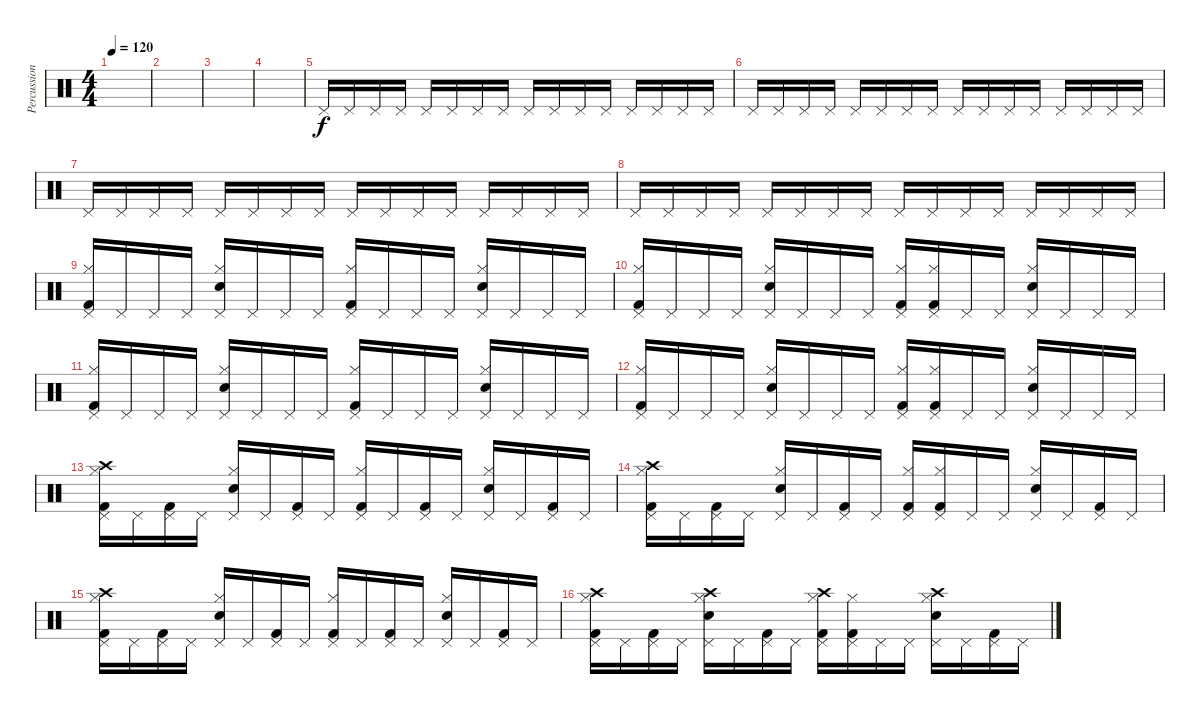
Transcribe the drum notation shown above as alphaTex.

\track ("Percussions" "Percussion") {instrument percussion}
\staff {score}
\articulation defaults
\ts (4 4)
\tempo 120
\clef neutral
\ks c
|
|
|
|
"Pedal Hi-Hat (hit)".16 "Pedal Hi-Hat (hit)".16 "Pedal Hi-Hat (hit)".16 "Pedal Hi-Hat (hit)".16 "Pedal Hi-Hat (hit)".16 "Pedal Hi-Hat (hit)".16 "Pedal Hi-Hat (hit)".16 "Pedal Hi-Hat (hit)".16 "Pedal Hi-Hat (hit)".16 "Pedal Hi-Hat (hit)".16 "Pedal Hi-Hat (hit)".16 "Pedal Hi-Hat (hit)".16 "Pedal Hi-Hat (hit)".16 "Pedal Hi-Hat (hit)".16 "Pedal Hi-Hat (hit)".16 "Pedal Hi-Hat (hit)".16 |
"Pedal Hi-Hat (hit)".16 "Pedal Hi-Hat (hit)".16 "Pedal Hi-Hat (hit)".16 "Pedal Hi-Hat (hit)".16 "Pedal Hi-Hat (hit)".16 "Pedal Hi-Hat (hit)".16 "Pedal Hi-Hat (hit)".16 "Pedal Hi-Hat (hit)".16 "Pedal Hi-Hat (hit)".16 "Pedal Hi-Hat (hit)".16 "Pedal Hi-Hat (hit)".16 "Pedal Hi-Hat (hit)".16 "Pedal Hi-Hat (hit)".16 "Pedal Hi-Hat (hit)".16 "Pedal Hi-Hat (hit)".16 "Pedal Hi-Hat (hit)".16 |
"Pedal Hi-Hat (hit)".16 "Pedal Hi-Hat (hit)".16 "Pedal Hi-Hat (hit)".16 "Pedal Hi-Hat (hit)".16 "Pedal Hi-Hat (hit)".16 "Pedal Hi-Hat (hit)".16 "Pedal Hi-Hat (hit)".16 "Pedal Hi-Hat (hit)".16 "Pedal Hi-Hat (hit)".16 "Pedal Hi-Hat (hit)".16 "Pedal Hi-Hat (hit)".16 "Pedal Hi-Hat (hit)".16 "Pedal Hi-Hat (hit)".16 "Pedal Hi-Hat (hit)".16 "Pedal Hi-Hat (hit)".16 "Pedal Hi-Hat (hit)".16 |
"Pedal Hi-Hat (hit)".16 "Pedal Hi-Hat (hit)".16 "Pedal Hi-Hat (hit)".16 "Pedal Hi-Hat (hit)".16 "Pedal Hi-Hat (hit)".16 "Pedal Hi-Hat (hit)".16 "Pedal Hi-Hat (hit)".16 "Pedal Hi-Hat (hit)".16 "Pedal Hi-Hat (hit)".16 "Pedal Hi-Hat (hit)".16 "Pedal Hi-Hat (hit)".16 "Pedal Hi-Hat (hit)".16 "Pedal Hi-Hat (hit)".16 "Pedal Hi-Hat (hit)".16 "Pedal Hi-Hat (hit)".16 "Pedal Hi-Hat (hit)".16 |
("Pedal Hi-Hat (hit)" "Hi-Hat (closed)" "Kick (hit) 2").16 "Pedal Hi-Hat (hit)".16 "Pedal Hi-Hat (hit)".16 "Pedal Hi-Hat (hit)".16 ("Pedal Hi-Hat (hit)" "Hand Clap (hit)" "Hi-Hat (closed)").16 "Pedal Hi-Hat (hit)".16 "Pedal Hi-Hat (hit)".16 "Pedal Hi-Hat (hit)".16 ("Pedal Hi-Hat (hit)" "Hi-Hat (closed)" "Kick (hit) 2").16 "Pedal Hi-Hat (hit)".16 "Pedal Hi-Hat (hit)".16 "Pedal Hi-Hat (hit)".16 ("Pedal Hi-Hat (hit)" "Hand Clap (hit)" "Hi-Hat (closed)").16 "Pedal Hi-Hat (hit)".16 "Pedal Hi-Hat (hit)".16 "Pedal Hi-Hat (hit)".16 |
("Pedal Hi-Hat (hit)" "Hi-Hat (closed)" "Kick (hit) 2").16 "Pedal Hi-Hat (hit)".16 "Pedal Hi-Hat (hit)".16 "Pedal Hi-Hat (hit)".16 ("Pedal Hi-Hat (hit)" "Hand Clap (hit)" "Hi-Hat (closed)").16 "Pedal Hi-Hat (hit)".16 "Pedal Hi-Hat (hit)".16 "Pedal Hi-Hat (hit)".16 ("Pedal Hi-Hat (hit)" "Hi-Hat (closed)" "Kick (hit) 2").16 ("Pedal Hi-Hat (hit)" "Hi-Hat (closed)" "Kick (hit) 2").16 "Pedal Hi-Hat (hit)".16 "Pedal Hi-Hat (hit)".16 ("Pedal Hi-Hat (hit)" "Hand Clap (hit)" "Hi-Hat (closed)").16 "Pedal Hi-Hat (hit)".16 "Pedal Hi-Hat (hit)".16 "Pedal Hi-Hat (hit)".16 |
("Pedal Hi-Hat (hit)" "Hi-Hat (closed)" "Kick (hit) 2").16 "Pedal Hi-Hat (hit)".16 "Pedal Hi-Hat (hit)".16 "Pedal Hi-Hat (hit)".16 ("Pedal Hi-Hat (hit)" "Hand Clap (hit)" "Hi-Hat (closed)").16 "Pedal Hi-Hat (hit)".16 "Pedal Hi-Hat (hit)".16 "Pedal Hi-Hat (hit)".16 ("Pedal Hi-Hat (hit)" "Hi-Hat (closed)" "Kick (hit) 2").16 "Pedal Hi-Hat (hit)".16 "Pedal Hi-Hat (hit)".16 "Pedal Hi-Hat (hit)".16 ("Pedal Hi-Hat (hit)" "Hand Clap (hit)" "Hi-Hat (closed)").16 "Pedal Hi-Hat (hit)".16 "Pedal Hi-Hat (hit)".16 "Pedal Hi-Hat (hit)".16 |
("Pedal Hi-Hat (hit)" "Hi-Hat (closed)" "Kick (hit) 2").16 "Pedal Hi-Hat (hit)".16 "Pedal Hi-Hat (hit)".16 "Pedal Hi-Hat (hit)".16 ("Pedal Hi-Hat (hit)" "Hand Clap (hit)" "Hi-Hat (closed)").16 "Pedal Hi-Hat (hit)".16 "Pedal Hi-Hat (hit)".16 "Pedal Hi-Hat (hit)".16 ("Pedal Hi-Hat (hit)" "Hi-Hat (closed)" "Kick (hit) 2").16 ("Pedal Hi-Hat (hit)" "Hi-Hat (closed)" "Kick (hit) 2").16 "Pedal Hi-Hat (hit)".16 "Pedal Hi-Hat (hit)".16 ("Pedal Hi-Hat (hit)" "Hand Clap (hit)" "Hi-Hat (closed)").16 "Pedal Hi-Hat (hit)".16 "Pedal Hi-Hat (hit)".16 "Pedal Hi-Hat (hit)".16 |
("Crash high (hit)" "Pedal Hi-Hat (hit)" "Hi-Hat (closed)" "Kick (hit) 2").16 "Pedal Hi-Hat (hit)".16 ("Pedal Hi-Hat (hit)" "Kick (hit) 2").16 "Pedal Hi-Hat (hit)".16 ("Pedal Hi-Hat (hit)" "Hand Clap (hit)" "Hi-Hat (closed)").16 "Pedal Hi-Hat (hit)".16 ("Pedal Hi-Hat (hit)" "Kick (hit) 2").16 "Pedal Hi-Hat (hit)".16 ("Pedal Hi-Hat (hit)" "Hi-Hat (closed)" "Kick (hit) 2").16 "Pedal Hi-Hat (hit)".16 ("Pedal Hi-Hat (hit)" "Kick (hit) 2").16 "Pedal Hi-Hat (hit)".16 ("Pedal Hi-Hat (hit)" "Hand Clap (hit)" "Hi-Hat (closed)").16 "Pedal Hi-Hat (hit)".16 ("Pedal Hi-Hat (hit)" "Kick (hit) 2").16 "Pedal Hi-Hat (hit)".16 |
("Crash high (hit)" "Pedal Hi-Hat (hit)" "Hi-Hat (closed)" "Kick (hit) 2").16 "Pedal Hi-Hat (hit)".16 ("Pedal Hi-Hat (hit)" "Kick (hit) 2").16 "Pedal Hi-Hat (hit)".16 ("Pedal Hi-Hat (hit)" "Hand Clap (hit)" "Hi-Hat (closed)").16 "Pedal Hi-Hat (hit)".16 ("Pedal Hi-Hat (hit)" "Kick (hit) 2").16 "Pedal Hi-Hat (hit)".16 ("Pedal Hi-Hat (hit)" "Hi-Hat (closed)" "Kick (hit) 2").16 ("Pedal Hi-Hat (hit)" "Hi-Hat (closed)" "Kick (hit) 2").16 "Pedal Hi-Hat (hit)".16 "Pedal Hi-Hat (hit)".16 ("Pedal Hi-Hat (hit)" "Hand Clap (hit)" "Hi-Hat (closed)").16 "Pedal Hi-Hat (hit)".16 ("Pedal Hi-Hat (hit)" "Kick (hit) 2").16 "Pedal Hi-Hat (hit)".16 |
("Crash high (hit)" "Pedal Hi-Hat (hit)" "Hi-Hat (closed)" "Kick (hit) 2").16 "Pedal Hi-Hat (hit)".16 ("Pedal Hi-Hat (hit)" "Kick (hit) 2").16 "Pedal Hi-Hat (hit)".16 ("Pedal Hi-Hat (hit)" "Hand Clap (hit)" "Hi-Hat (closed)").16 "Pedal Hi-Hat (hit)".16 ("Pedal Hi-Hat (hit)" "Kick (hit) 2").16 "Pedal Hi-Hat (hit)".16 ("Pedal Hi-Hat (hit)" "Hi-Hat (closed)" "Kick (hit) 2").16 "Pedal Hi-Hat (hit)".16 ("Pedal Hi-Hat (hit)" "Kick (hit) 2").16 "Pedal Hi-Hat (hit)".16 ("Pedal Hi-Hat (hit)" "Hand Clap (hit)" "Hi-Hat (closed)").16 "Pedal Hi-Hat (hit)".16 ("Pedal Hi-Hat (hit)" "Kick (hit) 2").16 "Pedal Hi-Hat (hit)".16 |
("Crash high (hit)" "Pedal Hi-Hat (hit)" "Hi-Hat (closed)" "Kick (hit) 2").16 "Pedal Hi-Hat (hit)".16 ("Pedal Hi-Hat (hit)" "Kick (hit) 2").16 "Pedal Hi-Hat (hit)".16 ("Crash high (hit)" "Pedal Hi-Hat (hit)" "Hand Clap (hit)" "Hi-Hat (closed)").16 "Pedal Hi-Hat (hit)".16 ("Pedal Hi-Hat (hit)" "Kick (hit) 2").16 "Pedal Hi-Hat (hit)".16 ("Crash high (hit)" "Pedal Hi-Hat (hit)" "Hi-Hat (closed)" "Kick (hit) 2").16 ("Pedal Hi-Hat (hit)" "Hi-Hat (closed)" "Kick (hit) 2").16 "Pedal Hi-Hat (hit)".16 "Pedal Hi-Hat (hit)".16 ("Crash high (hit)" "Pedal Hi-Hat (hit)" "Hand Clap (hit)" "Hi-Hat (closed)").16 "Pedal Hi-Hat (hit)".16 ("Pedal Hi-Hat (hit)" "Kick (hit) 2").16 "Pedal Hi-Hat (hit)".16
